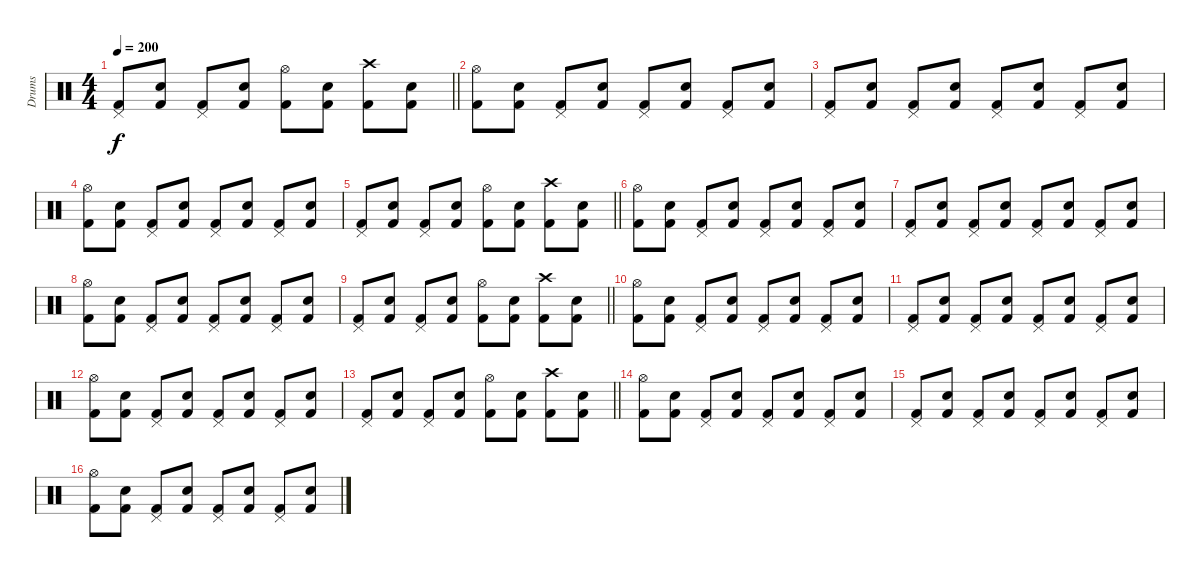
\track ("Drums" "Drums") {instrument percussion}
\staff {score}
\articulation defaults
\ts (4 4)
\tempo 200
\clef neutral
\barLineRight lightlight
\ks c
("Pedal Hi-Hat (hit)" "Kick (hit) 2").8{dy f} ("Snare (hit) 2" "Kick (hit) 2").8 ("Pedal Hi-Hat (hit)" "Kick (hit) 2").8 ("Snare (hit) 2" "Kick (hit) 2").8 ("Hi-Hat (open)" "Kick (hit) 2").8 ("Snare (hit) 2" "Kick (hit) 2").8 ("Crash high (hit)" "Kick (hit) 2").8 ("Snare (hit) 2" "Kick (hit) 2").8 |
("Hi-Hat (open)" "Kick (hit) 2").8 ("Snare (hit) 2" "Kick (hit) 2").8 ("Pedal Hi-Hat (hit)" "Kick (hit) 2").8 ("Snare (hit) 2" "Kick (hit) 2").8 ("Pedal Hi-Hat (hit)" "Kick (hit) 2").8 ("Snare (hit) 2" "Kick (hit) 2").8 ("Pedal Hi-Hat (hit)" "Kick (hit) 2").8 ("Snare (hit) 2" "Kick (hit) 2").8 |
("Pedal Hi-Hat (hit)" "Kick (hit) 2").8 ("Snare (hit) 2" "Kick (hit) 2").8 ("Pedal Hi-Hat (hit)" "Kick (hit) 2").8 ("Snare (hit) 2" "Kick (hit) 2").8 ("Pedal Hi-Hat (hit)" "Kick (hit) 2").8 ("Snare (hit) 2" "Kick (hit) 2").8 ("Pedal Hi-Hat (hit)" "Kick (hit) 2").8 ("Snare (hit) 2" "Kick (hit) 2").8 |
("Hi-Hat (open)" "Kick (hit) 2").8 ("Snare (hit) 2" "Kick (hit) 2").8 ("Pedal Hi-Hat (hit)" "Kick (hit) 2").8 ("Snare (hit) 2" "Kick (hit) 2").8 ("Pedal Hi-Hat (hit)" "Kick (hit) 2").8 ("Snare (hit) 2" "Kick (hit) 2").8 ("Pedal Hi-Hat (hit)" "Kick (hit) 2").8 ("Snare (hit) 2" "Kick (hit) 2").8 |
\barLineRight lightlight
("Pedal Hi-Hat (hit)" "Kick (hit) 2").8 ("Snare (hit) 2" "Kick (hit) 2").8 ("Pedal Hi-Hat (hit)" "Kick (hit) 2").8 ("Snare (hit) 2" "Kick (hit) 2").8 ("Hi-Hat (open)" "Kick (hit) 2").8 ("Snare (hit) 2" "Kick (hit) 2").8 ("Crash high (hit)" "Kick (hit) 2").8 ("Snare (hit) 2" "Kick (hit) 2").8 |
("Hi-Hat (open)" "Kick (hit) 2").8 ("Snare (hit) 2" "Kick (hit) 2").8 ("Pedal Hi-Hat (hit)" "Kick (hit) 2").8 ("Snare (hit) 2" "Kick (hit) 2").8 ("Pedal Hi-Hat (hit)" "Kick (hit) 2").8 ("Snare (hit) 2" "Kick (hit) 2").8 ("Pedal Hi-Hat (hit)" "Kick (hit) 2").8 ("Snare (hit) 2" "Kick (hit) 2").8 |
("Pedal Hi-Hat (hit)" "Kick (hit) 2").8 ("Snare (hit) 2" "Kick (hit) 2").8 ("Pedal Hi-Hat (hit)" "Kick (hit) 2").8 ("Snare (hit) 2" "Kick (hit) 2").8 ("Pedal Hi-Hat (hit)" "Kick (hit) 2").8 ("Snare (hit) 2" "Kick (hit) 2").8 ("Pedal Hi-Hat (hit)" "Kick (hit) 2").8 ("Snare (hit) 2" "Kick (hit) 2").8 |
("Hi-Hat (open)" "Kick (hit) 2").8 ("Snare (hit) 2" "Kick (hit) 2").8 ("Pedal Hi-Hat (hit)" "Kick (hit) 2").8 ("Snare (hit) 2" "Kick (hit) 2").8 ("Pedal Hi-Hat (hit)" "Kick (hit) 2").8 ("Snare (hit) 2" "Kick (hit) 2").8 ("Pedal Hi-Hat (hit)" "Kick (hit) 2").8 ("Snare (hit) 2" "Kick (hit) 2").8 |
\barLineRight lightlight
("Pedal Hi-Hat (hit)" "Kick (hit) 2").8 ("Snare (hit) 2" "Kick (hit) 2").8 ("Pedal Hi-Hat (hit)" "Kick (hit) 2").8 ("Snare (hit) 2" "Kick (hit) 2").8 ("Hi-Hat (open)" "Kick (hit) 2").8 ("Snare (hit) 2" "Kick (hit) 2").8 ("Crash high (hit)" "Kick (hit) 2").8 ("Snare (hit) 2" "Kick (hit) 2").8 |
("Hi-Hat (open)" "Kick (hit) 2").8 ("Snare (hit) 2" "Kick (hit) 2").8 ("Pedal Hi-Hat (hit)" "Kick (hit) 2").8 ("Snare (hit) 2" "Kick (hit) 2").8 ("Pedal Hi-Hat (hit)" "Kick (hit) 2").8 ("Snare (hit) 2" "Kick (hit) 2").8 ("Pedal Hi-Hat (hit)" "Kick (hit) 2").8 ("Snare (hit) 2" "Kick (hit) 2").8 |
("Pedal Hi-Hat (hit)" "Kick (hit) 2").8 ("Snare (hit) 2" "Kick (hit) 2").8 ("Pedal Hi-Hat (hit)" "Kick (hit) 2").8 ("Snare (hit) 2" "Kick (hit) 2").8 ("Pedal Hi-Hat (hit)" "Kick (hit) 2").8 ("Snare (hit) 2" "Kick (hit) 2").8 ("Pedal Hi-Hat (hit)" "Kick (hit) 2").8 ("Snare (hit) 2" "Kick (hit) 2").8 |
("Hi-Hat (open)" "Kick (hit) 2").8 ("Snare (hit) 2" "Kick (hit) 2").8 ("Pedal Hi-Hat (hit)" "Kick (hit) 2").8 ("Snare (hit) 2" "Kick (hit) 2").8 ("Pedal Hi-Hat (hit)" "Kick (hit) 2").8 ("Snare (hit) 2" "Kick (hit) 2").8 ("Pedal Hi-Hat (hit)" "Kick (hit) 2").8 ("Snare (hit) 2" "Kick (hit) 2").8 |
\barLineRight lightlight
("Pedal Hi-Hat (hit)" "Kick (hit) 2").8 ("Snare (hit) 2" "Kick (hit) 2").8 ("Pedal Hi-Hat (hit)" "Kick (hit) 2").8 ("Snare (hit) 2" "Kick (hit) 2").8 ("Hi-Hat (open)" "Kick (hit) 2").8 ("Snare (hit) 2" "Kick (hit) 2").8 ("Crash high (hit)" "Kick (hit) 2").8 ("Snare (hit) 2" "Kick (hit) 2").8 |
("Hi-Hat (open)" "Kick (hit) 2").8 ("Snare (hit) 2" "Kick (hit) 2").8 ("Pedal Hi-Hat (hit)" "Kick (hit) 2").8 ("Snare (hit) 2" "Kick (hit) 2").8 ("Pedal Hi-Hat (hit)" "Kick (hit) 2").8 ("Snare (hit) 2" "Kick (hit) 2").8 ("Pedal Hi-Hat (hit)" "Kick (hit) 2").8 ("Snare (hit) 2" "Kick (hit) 2").8 |
("Pedal Hi-Hat (hit)" "Kick (hit) 2").8 ("Snare (hit) 2" "Kick (hit) 2").8 ("Pedal Hi-Hat (hit)" "Kick (hit) 2").8 ("Snare (hit) 2" "Kick (hit) 2").8 ("Pedal Hi-Hat (hit)" "Kick (hit) 2").8 ("Snare (hit) 2" "Kick (hit) 2").8 ("Pedal Hi-Hat (hit)" "Kick (hit) 2").8 ("Snare (hit) 2" "Kick (hit) 2").8 |
("Hi-Hat (open)" "Kick (hit) 2").8 ("Snare (hit) 2" "Kick (hit) 2").8 ("Pedal Hi-Hat (hit)" "Kick (hit) 2").8 ("Snare (hit) 2" "Kick (hit) 2").8 ("Pedal Hi-Hat (hit)" "Kick (hit) 2").8 ("Snare (hit) 2" "Kick (hit) 2").8 ("Pedal Hi-Hat (hit)" "Kick (hit) 2").8 ("Snare (hit) 2" "Kick (hit) 2").8
